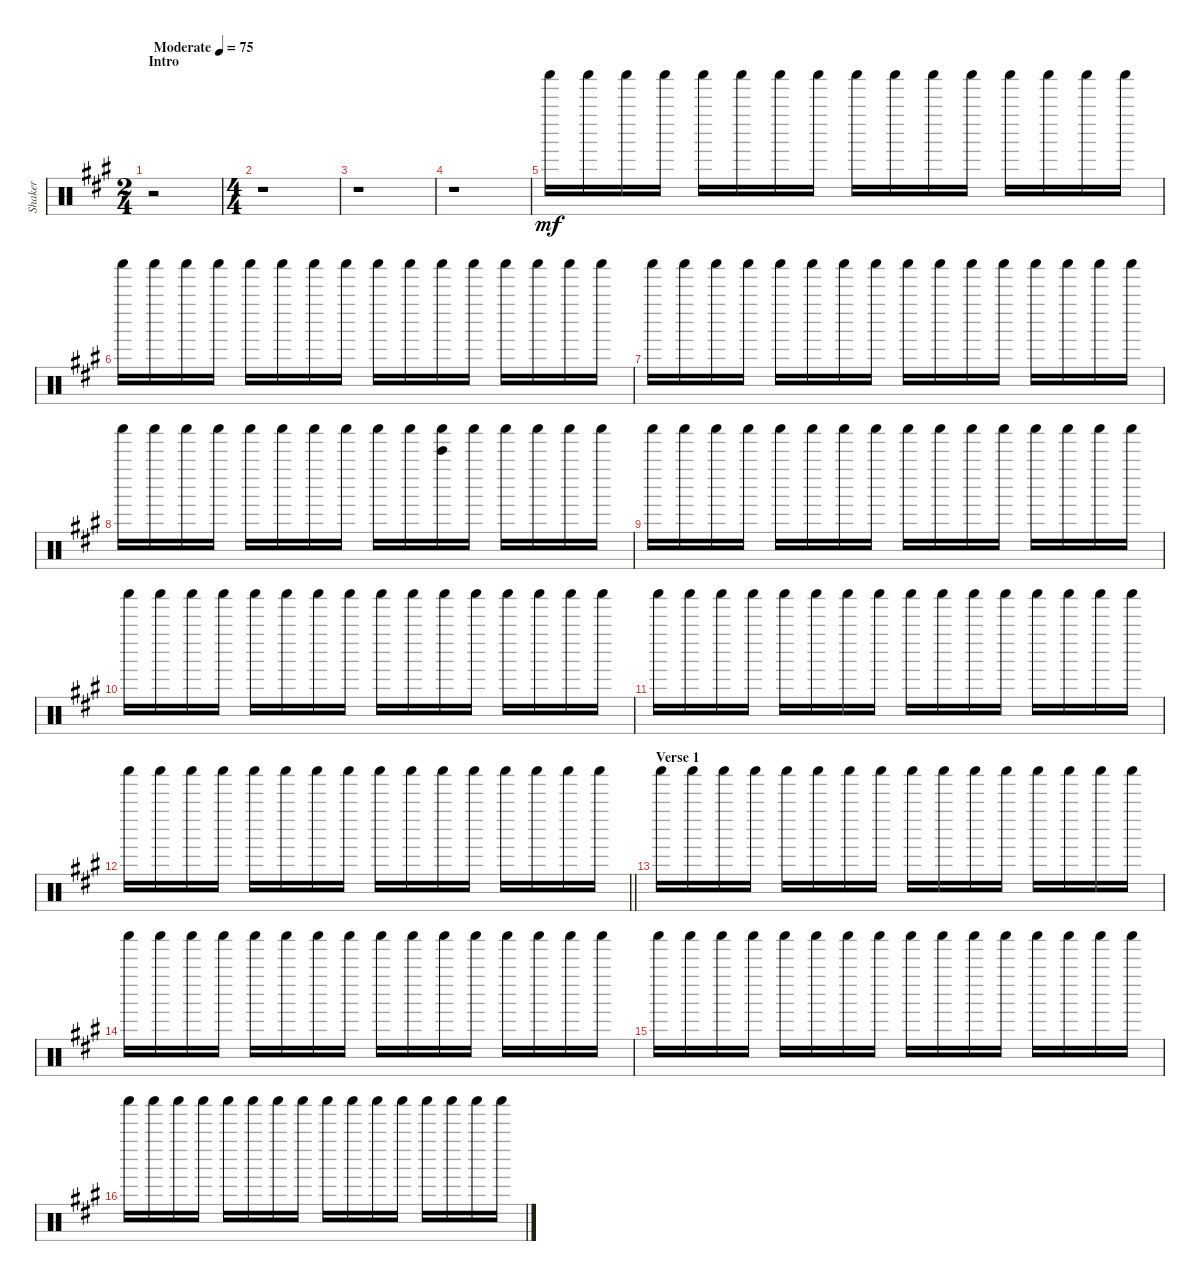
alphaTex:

\track ("Shaker" "Shaker") {instrument percussion}
\staff {score}
\articulation defaults
\ts (2 4)
\section ("" "Intro")
\tempo (75 "Moderate")
\clef neutral
\ks f#minor
r.2{dy mf} |
\ts (4 4)
r.1 |
r.1 |
r.1{volume 2} |
"Shaker (hit)".16{volume 13} "Shaker (hit)".16 "Shaker (hit)".16 "Shaker (hit)".16 "Shaker (hit)".16 "Shaker (hit)".16 "Shaker (hit)".16 "Shaker (hit)".16 "Shaker (hit)".16 "Shaker (hit)".16 "Shaker (hit)".16 "Shaker (hit)".16 "Shaker (hit)".16 "Shaker (hit)".16 "Shaker (hit)".16 "Shaker (hit)".16 |
"Shaker (hit)".16 "Shaker (hit)".16 "Shaker (hit)".16 "Shaker (hit)".16 "Shaker (hit)".16 "Shaker (hit)".16 "Shaker (hit)".16 "Shaker (hit)".16 "Shaker (hit)".16 "Shaker (hit)".16 "Shaker (hit)".16 "Shaker (hit)".16 "Shaker (hit)".16 "Shaker (hit)".16 "Shaker (hit)".16 "Shaker (hit)".16 |
"Shaker (hit)".16 "Shaker (hit)".16 "Shaker (hit)".16 "Shaker (hit)".16 "Shaker (hit)".16 "Shaker (hit)".16 "Shaker (hit)".16 "Shaker (hit)".16 "Shaker (hit)".16 "Shaker (hit)".16 "Shaker (hit)".16 "Shaker (hit)".16 "Shaker (hit)".16 "Shaker (hit)".16 "Shaker (hit)".16 "Shaker (hit)".16 |
"Shaker (hit)".16 "Shaker (hit)".16 "Shaker (hit)".16 "Shaker (hit)".16 "Shaker (hit)".16 "Shaker (hit)".16 "Shaker (hit)".16 "Shaker (hit)".16 "Shaker (hit)".16 "Shaker (hit)".16 ("Shaker (hit)" "Bell Tree (hit)").16 "Shaker (hit)".16 "Shaker (hit)".16 "Shaker (hit)".16 "Shaker (hit)".16 "Shaker (hit)".16 |
"Shaker (hit)".16 "Shaker (hit)".16 "Shaker (hit)".16 "Shaker (hit)".16 "Shaker (hit)".16 "Shaker (hit)".16 "Shaker (hit)".16 "Shaker (hit)".16 "Shaker (hit)".16 "Shaker (hit)".16 "Shaker (hit)".16 "Shaker (hit)".16 "Shaker (hit)".16 "Shaker (hit)".16 "Shaker (hit)".16 "Shaker (hit)".16 |
"Shaker (hit)".16 "Shaker (hit)".16 "Shaker (hit)".16 "Shaker (hit)".16 "Shaker (hit)".16 "Shaker (hit)".16 "Shaker (hit)".16 "Shaker (hit)".16 "Shaker (hit)".16 "Shaker (hit)".16 "Shaker (hit)".16 "Shaker (hit)".16 "Shaker (hit)".16 "Shaker (hit)".16 "Shaker (hit)".16 "Shaker (hit)".16 |
"Shaker (hit)".16 "Shaker (hit)".16 "Shaker (hit)".16 "Shaker (hit)".16 "Shaker (hit)".16 "Shaker (hit)".16 "Shaker (hit)".16 "Shaker (hit)".16 "Shaker (hit)".16 "Shaker (hit)".16 "Shaker (hit)".16 "Shaker (hit)".16 "Shaker (hit)".16 "Shaker (hit)".16 "Shaker (hit)".16 "Shaker (hit)".16 |
\barLineRight lightlight "Shaker (hit)".16 "Shaker (hit)".16 "Shaker (hit)".16 "Shaker (hit)".16 "Shaker (hit)".16 "Shaker (hit)".16 "Shaker (hit)".16 "Shaker (hit)".16 "Shaker (hit)".16 "Shaker (hit)".16 "Shaker (hit)".16 "Shaker (hit)".16 "Shaker (hit)".16 "Shaker (hit)".16 "Shaker (hit)".16 "Shaker (hit)".16
|
\section ("" "Verse 1")
"Shaker (hit)".16 "Shaker (hit)".16 "Shaker (hit)".16 "Shaker (hit)".16 "Shaker (hit)".16 "Shaker (hit)".16 "Shaker (hit)".16 "Shaker (hit)".16 "Shaker (hit)".16 "Shaker (hit)".16 "Shaker (hit)".16 "Shaker (hit)".16 "Shaker (hit)".16 "Shaker (hit)".16 "Shaker (hit)".16 "Shaker (hit)".16 |
"Shaker (hit)".16 "Shaker (hit)".16 "Shaker (hit)".16 "Shaker (hit)".16 "Shaker (hit)".16 "Shaker (hit)".16 "Shaker (hit)".16 "Shaker (hit)".16 "Shaker (hit)".16 "Shaker (hit)".16 "Shaker (hit)".16 "Shaker (hit)".16 "Shaker (hit)".16 "Shaker (hit)".16 "Shaker (hit)".16 "Shaker (hit)".16 |
"Shaker (hit)".16 "Shaker (hit)".16 "Shaker (hit)".16 "Shaker (hit)".16 "Shaker (hit)".16 "Shaker (hit)".16 "Shaker (hit)".16 "Shaker (hit)".16 "Shaker (hit)".16 "Shaker (hit)".16 "Shaker (hit)".16 "Shaker (hit)".16 "Shaker (hit)".16 "Shaker (hit)".16 "Shaker (hit)".16 "Shaker (hit)".16 |
"Shaker (hit)".16 "Shaker (hit)".16 "Shaker (hit)".16 "Shaker (hit)".16 "Shaker (hit)".16 "Shaker (hit)".16 "Shaker (hit)".16 "Shaker (hit)".16 "Shaker (hit)".16 "Shaker (hit)".16 "Shaker (hit)".16 "Shaker (hit)".16 "Shaker (hit)".16 "Shaker (hit)".16 "Shaker (hit)".16 "Shaker (hit)".16
